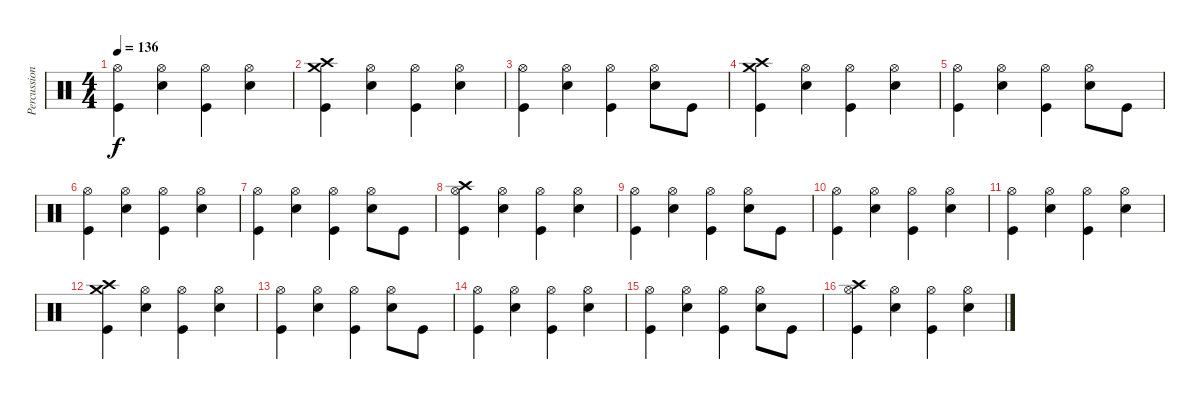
\track ("Percussion" "Percussion") {instrument percussion}
\staff {score}
\articulation defaults
\ts (4 4)
\tempo 136
\clef neutral
\ks c
("Hi-Hat (open)" "Kick (hit)").4{dy f} ("Hi-Hat (open)" "Electric Snare (hit)").4 ("Hi-Hat (open)" "Kick (hit)").4 ("Hi-Hat (open)" "Electric Snare (hit)").4 |
("Crash high (hit)" "Crash medium (hit)" "Kick (hit)").4 ("Hi-Hat (open)" "Electric Snare (hit)").4 ("Hi-Hat (open)" "Kick (hit)").4 ("Hi-Hat (open)" "Electric Snare (hit)").4 |
("Hi-Hat (open)" "Kick (hit)").4 ("Hi-Hat (open)" "Electric Snare (hit)").4 ("Hi-Hat (open)" "Kick (hit)").4 ("Hi-Hat (open)" "Electric Snare (hit)").8 "Kick (hit)".8 |
("Crash high (hit)" "Crash medium (hit)" "Kick (hit)").4 ("Hi-Hat (open)" "Electric Snare (hit)").4 ("Hi-Hat (open)" "Kick (hit)").4 ("Hi-Hat (open)" "Electric Snare (hit)").4 |
("Hi-Hat (open)" "Kick (hit)").4 ("Hi-Hat (open)" "Electric Snare (hit)").4 ("Hi-Hat (open)" "Kick (hit)").4 ("Hi-Hat (open)" "Electric Snare (hit)").8 "Kick (hit)".8 |
("Hi-Hat (open)" "Kick (hit)").4 ("Hi-Hat (open)" "Electric Snare (hit)").4 ("Hi-Hat (open)" "Kick (hit)").4 ("Hi-Hat (open)" "Electric Snare (hit)").4 |
("Hi-Hat (open)" "Kick (hit)").4 ("Hi-Hat (open)" "Electric Snare (hit)").4 ("Hi-Hat (open)" "Kick (hit)").4 ("Hi-Hat (open)" "Electric Snare (hit)").8 "Kick (hit)".8 |
("Crash high (hit)" "Hi-Hat (open)" "Kick (hit)").4 ("Hi-Hat (open)" "Electric Snare (hit)").4 ("Hi-Hat (open)" "Kick (hit)").4 ("Hi-Hat (open)" "Electric Snare (hit)").4 |
("Hi-Hat (open)" "Kick (hit)").4 ("Hi-Hat (open)" "Electric Snare (hit)").4 ("Hi-Hat (open)" "Kick (hit)").4 ("Hi-Hat (open)" "Electric Snare (hit)").8 "Kick (hit)".8 |
("Hi-Hat (open)" "Kick (hit)").4 ("Hi-Hat (open)" "Electric Snare (hit)").4 ("Hi-Hat (open)" "Kick (hit)").4 ("Hi-Hat (open)" "Electric Snare (hit)").4 |
("Hi-Hat (open)" "Kick (hit)").4 ("Hi-Hat (open)" "Electric Snare (hit)").4 ("Hi-Hat (open)" "Kick (hit)").4 ("Hi-Hat (open)" "Electric Snare (hit)").4 |
("Crash high (hit)" "Crash medium (hit)" "Kick (hit)").4 ("Hi-Hat (open)" "Electric Snare (hit)").4 ("Hi-Hat (open)" "Kick (hit)").4 ("Hi-Hat (open)" "Electric Snare (hit)").4 |
("Hi-Hat (open)" "Kick (hit)").4 ("Hi-Hat (open)" "Electric Snare (hit)").4 ("Hi-Hat (open)" "Kick (hit)").4 ("Hi-Hat (open)" "Electric Snare (hit)").8 "Kick (hit)".8 |
("Hi-Hat (open)" "Kick (hit)").4 ("Hi-Hat (open)" "Electric Snare (hit)").4 ("Hi-Hat (open)" "Kick (hit)").4 ("Hi-Hat (open)" "Electric Snare (hit)").4 |
("Hi-Hat (open)" "Kick (hit)").4 ("Hi-Hat (open)" "Electric Snare (hit)").4 ("Hi-Hat (open)" "Kick (hit)").4 ("Hi-Hat (open)" "Electric Snare (hit)").8 "Kick (hit)".8 |
("Crash high (hit)" "Hi-Hat (open)" "Kick (hit)").4 ("Hi-Hat (open)" "Electric Snare (hit)").4 ("Hi-Hat (open)" "Kick (hit)").4 ("Hi-Hat (open)" "Electric Snare (hit)").4
